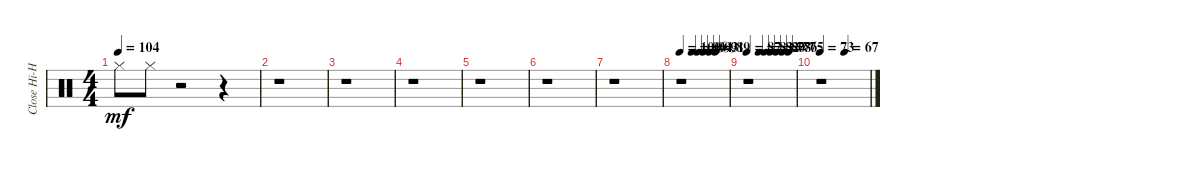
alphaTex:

\track ("Close Hi-Hat" "Close Hi-H") {instrument percussion}
\staff {score}
\articulation defaults
\ts (4 4)
\tempo 104
\clef neutral
\ks c "Hi-Hat (closed)".8{dy mf} "Hi-Hat (closed)".8
r.2 r.4 |
r.1 |
r.1 |
r.1 |
r.1 |
r.1 |
r.1 |
\tempo 100
\tempo (96 0.25)
\tempo (94 0.375)
\tempo (93 0.5)
\tempo (91 0.625)
\tempo (89 0.75)
r.1 |
\tempo 87
\tempo (83 0.25)
\tempo (82 0.375)
\tempo (80 0.5)
\tempo (78 0.625)
\tempo (76 0.75)
\tempo (75 0.875)
r.1 |
\tempo 73
\tempo (67 0.5)
r.1
